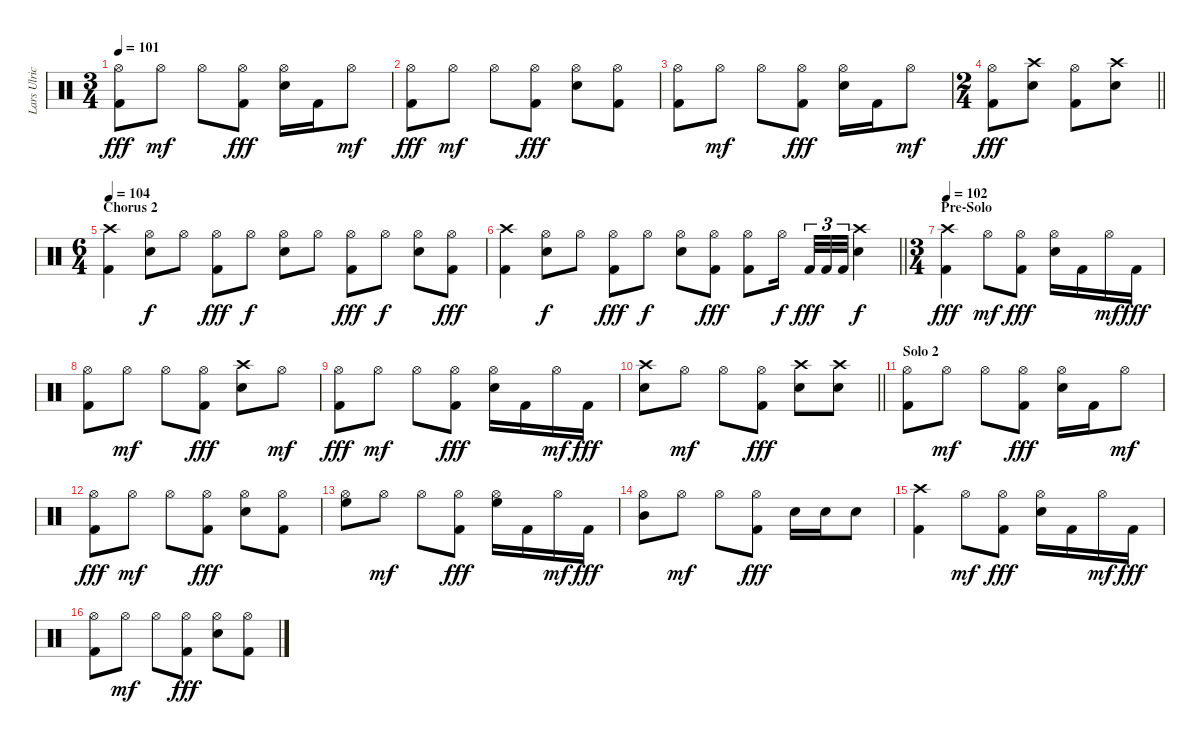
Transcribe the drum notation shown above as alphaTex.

\track ("Lars Ulrich" "Lars Ulric") {instrument percussion}
\staff {score}
\articulation defaults
\ts (3 4)
\tempo 101
\clef neutral
\ks c
("Hi-Hat (open)" "Kick (hit) 2").8{dy fff} "Hi-Hat (open)".8{dy mf} "Hi-Hat (open)".8 ("Hi-Hat (open)" "Kick (hit) 2").8{dy fff} ("Hi-Hat (open)" "Electric Snare (hit)").16 "Kick (hit) 2".16 "Hi-Hat (open)".8{dy mf} |
("Hi-Hat (open)" "Kick (hit) 2").8{dy fff} "Hi-Hat (open)".8{dy mf} "Hi-Hat (open)".8 ("Hi-Hat (open)" "Kick (hit) 2").8{dy fff} ("Hi-Hat (open)" "Electric Snare (hit)").8 ("Hi-Hat (open)" "Kick (hit) 2").8 |
("Hi-Hat (open)" "Kick (hit) 2").8 "Hi-Hat (open)".8{dy mf} "Hi-Hat (open)".8 ("Hi-Hat (open)" "Kick (hit) 2").8{dy fff} ("Hi-Hat (open)" "Electric Snare (hit)").16 "Kick (hit) 2".16 "Hi-Hat (open)".8{dy mf} |
\ts (2 4)
\barLineRight lightlight
("Hi-Hat (open)" "Kick (hit) 2").8{dy fff} ("Crash high (hit)" "Electric Snare (hit)").8 ("Hi-Hat (open)" "Kick (hit) 2").8 ("Crash high (hit)" "Electric Snare (hit)").8 |
\ts (6 4)
\section ("" "Chorus 2")
\tempo 104
("Crash high (hit)" "Kick (hit) 2").4 ("Hi-Hat (open)" "Electric Snare (hit)").8{dy f} "Hi-Hat (open)".8 ("Hi-Hat (open)" "Kick (hit) 2").8{dy fff} "Hi-Hat (open)".8{dy f} ("Hi-Hat (open)" "Electric Snare (hit)").8 "Hi-Hat (open)".8 ("Hi-Hat (open)" "Kick (hit) 2").8{dy fff} "Hi-Hat (open)".8{dy f} ("Hi-Hat (open)" "Electric Snare (hit)").8 ("Hi-Hat (open)" "Kick (hit) 2").8{dy fff} |
\barLineRight lightlight
("Crash high (hit)" "Kick (hit) 2").4 ("Hi-Hat (open)" "Electric Snare (hit)").8{dy f} "Hi-Hat (open)".8 ("Hi-Hat (open)" "Kick (hit) 2").8{dy fff} "Hi-Hat (open)".8{dy f} ("Hi-Hat (open)" "Electric Snare (hit)").8 ("Hi-Hat (open)" "Kick (hit) 2").8{dy fff} ("Hi-Hat (open)" "Kick (hit) 2").8 "Hi-Hat (open)".16{dy f beam splitsecondary} "Kick (hit) 2".32{tu (3 2) dy fff} "Kick (hit) 2".32{tu (3 2)} "Kick (hit) 2".32{tu (3 2)} ("Crash high (hit)" "Electric Snare (hit)").4{dy f} |
\ts (3 4)
\section ("" "Pre-Solo")
\tempo 102
("Crash high (hit)" "Kick (hit) 2").4{dy fff} "Hi-Hat (open)".8{dy mf} ("Hi-Hat (open)" "Kick (hit) 2").8{dy fff} ("Hi-Hat (open)" "Electric Snare (hit)").16 "Kick (hit) 2".16 "Hi-Hat (open)".16{dy mf} "Kick (hit) 2".16{dy fff} |
("Hi-Hat (open)" "Kick (hit) 2").8 "Hi-Hat (open)".8{dy mf} "Hi-Hat (open)".8 ("Hi-Hat (open)" "Kick (hit) 2").8{dy fff} ("Crash high (hit)" "Electric Snare (hit)").8 "Hi-Hat (open)".8{dy mf} |
("Hi-Hat (open)" "Kick (hit) 2").8{dy fff} "Hi-Hat (open)".8{dy mf} "Hi-Hat (open)".8 ("Hi-Hat (open)" "Kick (hit) 2").8{dy fff} ("Hi-Hat (open)" "Electric Snare (hit)").16 "Kick (hit) 2".16 "Hi-Hat (open)".16{dy mf} "Kick (hit) 2".16{dy fff} |
\barLineRight lightlight
("Crash high (hit)" "Electric Snare (hit)").8 "Hi-Hat (open)".8{dy mf} "Hi-Hat (open)".8 ("Hi-Hat (open)" "Kick (hit) 2").8{dy fff} ("Crash high (hit)" "Electric Snare (hit)").8 ("Crash high (hit)" "Electric Snare (hit)").8 |
\section ("" "Solo 2")
("Hi-Hat (open)" "Kick (hit) 2").8 "Hi-Hat (open)".8{dy mf} "Hi-Hat (open)".8 ("Hi-Hat (open)" "Kick (hit) 2").8{dy fff} ("Hi-Hat (open)" "Electric Snare (hit)").16 "Kick (hit) 2".16 "Hi-Hat (open)".8{dy mf} |
("Hi-Hat (open)" "Kick (hit) 2").8{dy fff} "Hi-Hat (open)".8{dy mf} "Hi-Hat (open)".8 ("Hi-Hat (open)" "Kick (hit) 2").8{dy fff} ("Hi-Hat (open)" "Electric Snare (hit)").8 ("Hi-Hat (open)" "Kick (hit) 2").8 |
("Hi-Hat (open)" "High Floor Tom (hit)").8 "Hi-Hat (open)".8{dy mf} "Hi-Hat (open)".8 ("Hi-Hat (open)" "Kick (hit) 2").8{dy fff} ("Hi-Hat (open)" "High Floor Tom (hit)").16 "Kick (hit) 2".16 "Hi-Hat (open)".16{dy mf} "Kick (hit) 2".16{dy fff} |
("Hi-Hat (open)" "Mid Tom (hit)").8 "Hi-Hat (open)".8{dy mf} "Hi-Hat (open)".8 ("Hi-Hat (open)" "Kick (hit) 2").8{dy fff} "Electric Snare (hit)".16 "Electric Snare (hit)".16 "Electric Snare (hit)".8 |
("Crash high (hit)" "Kick (hit) 2").4 "Hi-Hat (open)".8{dy mf} ("Hi-Hat (open)" "Kick (hit) 2").8{dy fff} ("Hi-Hat (open)" "Electric Snare (hit)").16 "Kick (hit) 2".16 "Hi-Hat (open)".16{dy mf} "Kick (hit) 2".16{dy fff} |
("Hi-Hat (open)" "Kick (hit) 2").8 "Hi-Hat (open)".8{dy mf} "Hi-Hat (open)".8 ("Hi-Hat (open)" "Kick (hit) 2").8{dy fff} ("Hi-Hat (open)" "Electric Snare (hit)").8 ("Hi-Hat (open)" "Kick (hit) 2").8
